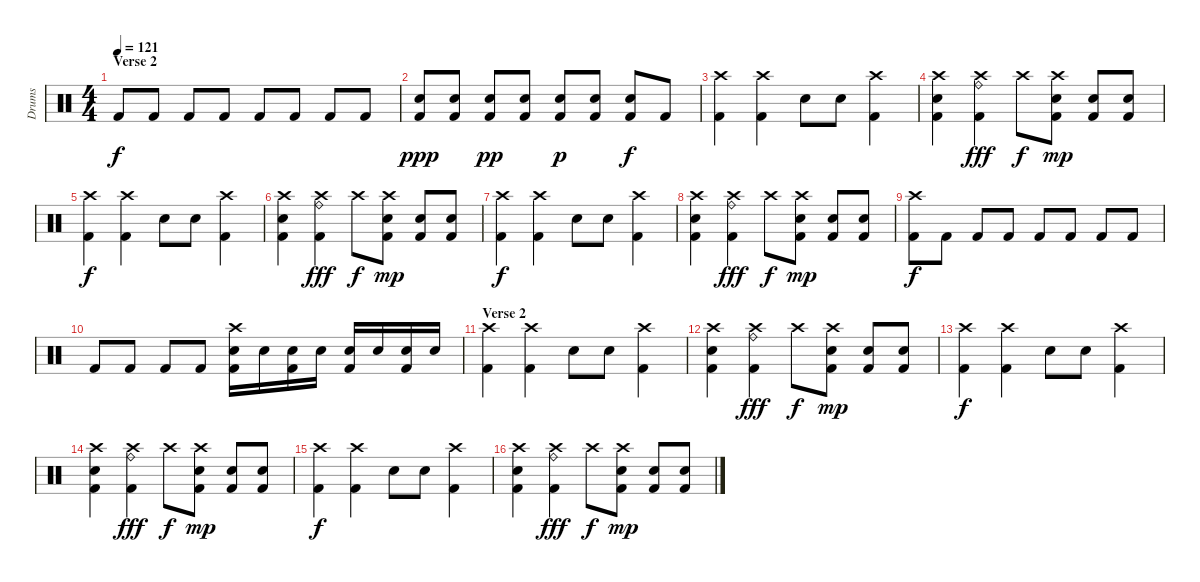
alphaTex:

\track ("Drums" "Drums") {instrument percussion}
\staff {score}
\articulation defaults
\ts (4 4)
\section ("" "Verse 2")
\tempo 121
\clef neutral
\ks c "Kick (hit) 2".8{dy f} "Kick (hit) 2".8 "Kick (hit) 2".8 "Kick (hit) 2".8 "Kick (hit) 2".8 "Kick (hit) 2".8 "Kick (hit) 2".8 "Kick (hit) 2".8
|
("Snare (hit) 2" "Kick (hit) 2").8{dy ppp} ("Snare (hit) 2" "Kick (hit) 2").8 ("Snare (hit) 2" "Kick (hit) 2").8{dy pp} ("Snare (hit) 2" "Kick (hit) 2").8 ("Snare (hit) 2" "Kick (hit) 2").8{dy p} ("Snare (hit) 2" "Kick (hit) 2").8 ("Snare (hit) 2" "Kick (hit) 2").8{dy f} "Kick (hit) 2".8 |
("Crash high (hit)" "Kick (hit) 2").4 ("Crash high (hit)" "Kick (hit) 2").4 "Snare (hit) 2".8 "Snare (hit) 2".8 ("Crash high (hit)" "Kick (hit) 2").4 |
("Crash high (hit)" "Snare (hit) 2" "Kick (hit) 2").4 ("Crash high (hit)" "Ride (bell)" "Kick (hit) 2").4{dy fff} "Crash high (hit)".8{dy f} ("Crash high (hit)" "Snare (hit) 2" "Kick (hit) 2").8{dy mp} ("Snare (hit) 2" "Kick (hit) 2").8 ("Snare (hit) 2" "Kick (hit) 2").8 |
("Crash high (hit)" "Kick (hit) 2").4{dy f} ("Crash high (hit)" "Kick (hit) 2").4 "Snare (hit) 2".8 "Snare (hit) 2".8 ("Crash high (hit)" "Kick (hit) 2").4 |
("Crash high (hit)" "Snare (hit) 2" "Kick (hit) 2").4 ("Crash high (hit)" "Ride (bell)" "Kick (hit) 2").4{dy fff} "Crash high (hit)".8{dy f} ("Crash high (hit)" "Snare (hit) 2" "Kick (hit) 2").8{dy mp} ("Snare (hit) 2" "Kick (hit) 2").8 ("Snare (hit) 2" "Kick (hit) 2").8 |
("Crash high (hit)" "Kick (hit) 2").4{dy f} ("Crash high (hit)" "Kick (hit) 2").4 "Snare (hit) 2".8 "Snare (hit) 2".8 ("Crash high (hit)" "Kick (hit) 2").4 |
("Crash high (hit)" "Snare (hit) 2" "Kick (hit) 2").4 ("Crash high (hit)" "Ride (bell)" "Kick (hit) 2").4{dy fff} "Crash high (hit)".8{dy f} ("Crash high (hit)" "Snare (hit) 2" "Kick (hit) 2").8{dy mp} ("Snare (hit) 2" "Kick (hit) 2").8 ("Snare (hit) 2" "Kick (hit) 2").8 |
("Crash high (hit)" "Kick (hit) 2").8{dy f} "Kick (hit) 2".8 "Kick (hit) 2".8 "Kick (hit) 2".8 "Kick (hit) 2".8 "Kick (hit) 2".8 "Kick (hit) 2".8 "Kick (hit) 2".8 |
"Kick (hit) 2".8 "Kick (hit) 2".8 "Kick (hit) 2".8 "Kick (hit) 2".8 ("Crash high (hit)" "Snare (hit) 2" "Kick (hit) 2").16 "Snare (hit) 2".16 ("Snare (hit) 2" "Kick (hit) 2").16 "Snare (hit) 2".16 ("Snare (hit) 2" "Kick (hit) 2").16 "Snare (hit) 2".16 ("Snare (hit) 2" "Kick (hit) 2").16 "Snare (hit) 2".16 |
\section ("" "Verse 2")
("Crash high (hit)" "Kick (hit) 2").4 ("Crash high (hit)" "Kick (hit) 2").4 "Snare (hit) 2".8 "Snare (hit) 2".8 ("Crash high (hit)" "Kick (hit) 2").4 |
("Crash high (hit)" "Snare (hit) 2" "Kick (hit) 2").4 ("Crash high (hit)" "Ride (bell)" "Kick (hit) 2").4{dy fff} "Crash high (hit)".8{dy f} ("Crash high (hit)" "Snare (hit) 2" "Kick (hit) 2").8{dy mp} ("Snare (hit) 2" "Kick (hit) 2").8 ("Snare (hit) 2" "Kick (hit) 2").8 |
("Crash high (hit)" "Kick (hit) 2").4{dy f} ("Crash high (hit)" "Kick (hit) 2").4 "Snare (hit) 2".8 "Snare (hit) 2".8 ("Crash high (hit)" "Kick (hit) 2").4 |
("Crash high (hit)" "Snare (hit) 2" "Kick (hit) 2").4 ("Crash high (hit)" "Ride (bell)" "Kick (hit) 2").4{dy fff} "Crash high (hit)".8{dy f} ("Crash high (hit)" "Snare (hit) 2" "Kick (hit) 2").8{dy mp} ("Snare (hit) 2" "Kick (hit) 2").8 ("Snare (hit) 2" "Kick (hit) 2").8 |
("Crash high (hit)" "Kick (hit) 2").4{dy f} ("Crash high (hit)" "Kick (hit) 2").4 "Snare (hit) 2".8 "Snare (hit) 2".8 ("Crash high (hit)" "Kick (hit) 2").4 |
("Crash high (hit)" "Snare (hit) 2" "Kick (hit) 2").4 ("Crash high (hit)" "Ride (bell)" "Kick (hit) 2").4{dy fff} "Crash high (hit)".8{dy f} ("Crash high (hit)" "Snare (hit) 2" "Kick (hit) 2").8{dy mp} ("Snare (hit) 2" "Kick (hit) 2").8 ("Snare (hit) 2" "Kick (hit) 2").8
